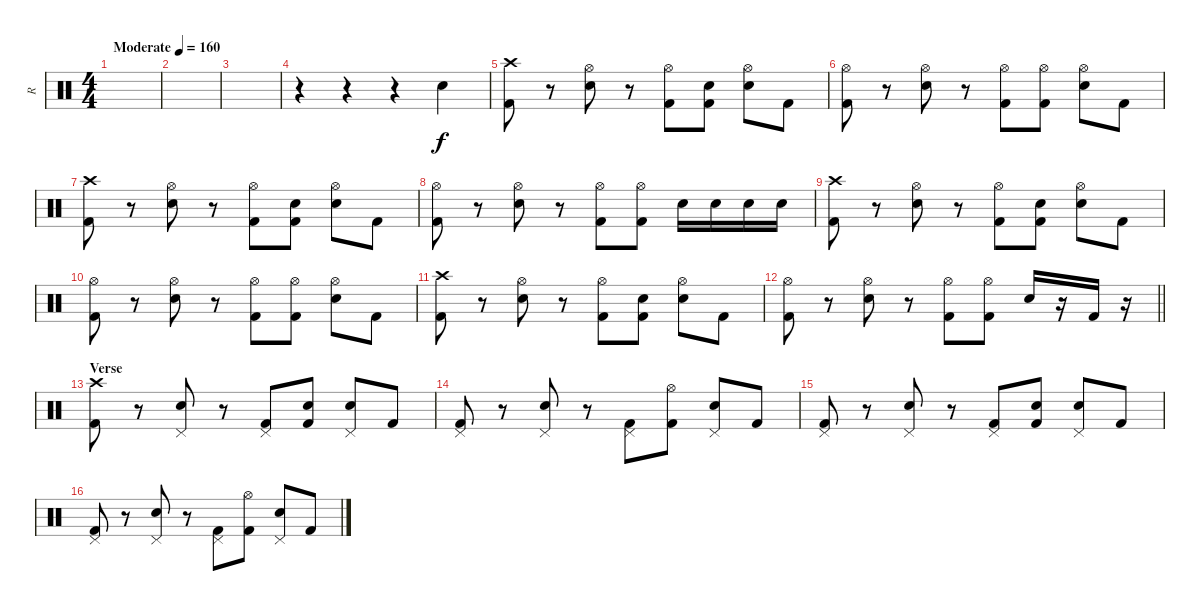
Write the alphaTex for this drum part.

\track ("R" "R") {instrument percussion}
\staff {score}
\articulation defaults
\ts (4 4)
\tempo (160 "Moderate")
\clef neutral
\ks c
|
|
|
r.4 r.4 r.4 "Electric Snare (hit)".4 |
("Crash high (hit)" "Kick (hit) 2").8 r.8 ("Hi-Hat (open)" "Electric Snare (hit)").8 r.8 ("Hi-Hat (open)" "Kick (hit) 2").8 ("Electric Snare (hit)" "Kick (hit) 2").8 ("Hi-Hat (open)" "Electric Snare (hit)").8 "Kick (hit) 2".8 |
("Hi-Hat (open)" "Kick (hit) 2").8 r.8 ("Hi-Hat (open)" "Electric Snare (hit)").8 r.8 ("Hi-Hat (open)" "Kick (hit) 2").8 ("Hi-Hat (open)" "Kick (hit) 2").8 ("Hi-Hat (open)" "Electric Snare (hit)").8 "Kick (hit) 2".8 |
("Crash high (hit)" "Kick (hit) 2").8 r.8 ("Hi-Hat (open)" "Electric Snare (hit)").8 r.8 ("Hi-Hat (open)" "Kick (hit) 2").8 ("Electric Snare (hit)" "Kick (hit) 2").8 ("Hi-Hat (open)" "Electric Snare (hit)").8 "Kick (hit) 2".8 |
("Hi-Hat (open)" "Kick (hit) 2").8 r.8 ("Hi-Hat (open)" "Electric Snare (hit)").8 r.8 ("Hi-Hat (open)" "Kick (hit) 2").8 ("Hi-Hat (open)" "Kick (hit) 2").8 "Electric Snare (hit)".16 "Electric Snare (hit)".16 "Electric Snare (hit)".16 "Electric Snare (hit)".16 |
("Crash high (hit)" "Kick (hit) 2").8 r.8 ("Hi-Hat (open)" "Electric Snare (hit)").8 r.8 ("Hi-Hat (open)" "Kick (hit) 2").8 ("Electric Snare (hit)" "Kick (hit) 2").8 ("Hi-Hat (open)" "Electric Snare (hit)").8 "Kick (hit) 2".8 |
("Hi-Hat (open)" "Kick (hit) 2").8 r.8 ("Hi-Hat (open)" "Electric Snare (hit)").8 r.8 ("Hi-Hat (open)" "Kick (hit) 2").8 ("Hi-Hat (open)" "Kick (hit) 2").8 ("Hi-Hat (open)" "Electric Snare (hit)").8 "Kick (hit) 2".8 |
("Crash high (hit)" "Kick (hit) 2").8 r.8 ("Hi-Hat (open)" "Electric Snare (hit)").8 r.8 ("Hi-Hat (open)" "Kick (hit) 2").8 ("Electric Snare (hit)" "Kick (hit) 2").8 ("Hi-Hat (open)" "Electric Snare (hit)").8 "Kick (hit) 2".8 |
\barLineRight lightlight
("Hi-Hat (open)" "Kick (hit) 2").8 r.8 ("Hi-Hat (open)" "Electric Snare (hit)").8 r.8 ("Hi-Hat (open)" "Kick (hit) 2").8 ("Hi-Hat (open)" "Kick (hit) 2").8 "Electric Snare (hit)".16 r.16 "Kick (hit) 2".16 r.16 |
\section ("" "Verse")
("Crash high (hit)" "Kick (hit) 2").8 r.8 ("Pedal Hi-Hat (hit)" "Electric Snare (hit)").8 r.8 ("Pedal Hi-Hat (hit)" "Kick (hit) 2").8 ("Electric Snare (hit)" "Kick (hit) 2").8 ("Pedal Hi-Hat (hit)" "Electric Snare (hit)").8 "Kick (hit) 2".8 |
("Pedal Hi-Hat (hit)" "Kick (hit) 2").8 r.8 ("Pedal Hi-Hat (hit)" "Electric Snare (hit)").8 r.8 ("Pedal Hi-Hat (hit)" "Kick (hit) 2").8 ("Hi-Hat (open)" "Kick (hit) 2").8 ("Pedal Hi-Hat (hit)" "Electric Snare (hit)").8 "Kick (hit) 2".8 |
("Pedal Hi-Hat (hit)" "Kick (hit) 2").8 r.8 ("Pedal Hi-Hat (hit)" "Electric Snare (hit)").8 r.8 ("Pedal Hi-Hat (hit)" "Kick (hit) 2").8 ("Electric Snare (hit)" "Kick (hit) 2").8 ("Pedal Hi-Hat (hit)" "Electric Snare (hit)").8 "Kick (hit) 2".8 |
("Pedal Hi-Hat (hit)" "Kick (hit) 2").8 r.8 ("Pedal Hi-Hat (hit)" "Electric Snare (hit)").8 r.8 ("Pedal Hi-Hat (hit)" "Kick (hit) 2").8 ("Hi-Hat (open)" "Kick (hit) 2").8 ("Pedal Hi-Hat (hit)" "Electric Snare (hit)").8 "Kick (hit) 2".8
